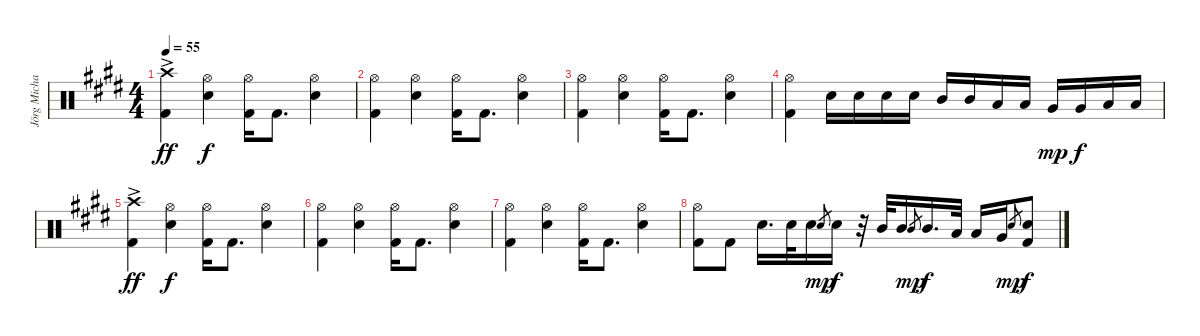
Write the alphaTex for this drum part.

\track ("Jörg Michael" "Jörg Micha") {instrument percussion}
\staff {score}
\articulation defaults
\ts (4 4)
\tempo 55
\clef neutral
\ks e
("Crash high (hit)"{ac} "Kick (hit) 2"{ac}).4{dy ff volume 13} ("Hi-Hat (open)" "Electric Snare (hit)").4{dy f} ("Hi-Hat (open)" "Kick (hit) 2").16 "Kick (hit) 2".8{d} ("Hi-Hat (open)" "Electric Snare (hit)").4 |
("Hi-Hat (open)" "Kick (hit) 2").4 ("Hi-Hat (open)" "Electric Snare (hit)").4 ("Hi-Hat (open)" "Kick (hit) 2").16 "Kick (hit) 2".8{d} ("Hi-Hat (open)" "Electric Snare (hit)").4 |
("Hi-Hat (open)" "Kick (hit) 2").4 ("Hi-Hat (open)" "Electric Snare (hit)").4 ("Hi-Hat (open)" "Kick (hit) 2").16 "Kick (hit) 2".8{d} ("Hi-Hat (open)" "Electric Snare (hit)").4 |
("Hi-Hat (open)" "Kick (hit) 2").4 "Electric Snare (hit)".16 "Electric Snare (hit)".16 "Electric Snare (hit)".16 "Electric Snare (hit)".16 "Mid Tom (hit)".16 "Mid Tom (hit)".16 "Low Tom (hit)".16 "Low Tom (hit)".16 "Very Low Tom (hit)".16{dy mp} "Very Low Tom (hit)".16{dy f} "Low Floor Tom (hit)".16 "Low Floor Tom (hit)".16 |
("Crash high (hit)"{ac} "Kick (hit) 2"{ac}).4{dy ff volume 13} ("Hi-Hat (open)" "Electric Snare (hit)").4{dy f} ("Hi-Hat (open)" "Kick (hit) 2").16 "Kick (hit) 2".8{d} ("Hi-Hat (open)" "Electric Snare (hit)").4 |
("Hi-Hat (open)" "Kick (hit) 2").4 ("Hi-Hat (open)" "Electric Snare (hit)").4 ("Hi-Hat (open)" "Kick (hit) 2").16 "Kick (hit) 2".8{d} ("Hi-Hat (open)" "Electric Snare (hit)").4 |
("Hi-Hat (open)" "Kick (hit) 2").4 ("Hi-Hat (open)" "Electric Snare (hit)").4 ("Hi-Hat (open)" "Kick (hit) 2").16 "Kick (hit) 2".8{d} ("Hi-Hat (open)" "Electric Snare (hit)").4 |
("Hi-Hat (open)" "Kick (hit) 2").8 "Kick (hit) 2".8 "Electric Snare (hit)".16{d} "Electric Snare (hit)".32 "Electric Snare (hit)".16 "Electric Snare (hit)".8{gr dy mp} "Electric Snare (hit)".16{dy f} r.32 "Mid Tom (hit)".32 "Mid Tom (hit)".16 "Mid Tom (hit)".8{gr dy mp} "Mid Tom (hit)".16{d dy f} "Low Tom (hit)".32 "Low Tom (hit)".16 "Very Low Tom (hit)".16 "Electric Snare (hit)".8{gr dy mp} ("Electric Snare (hit)" "Kick (hit) 2").8{dy f}
